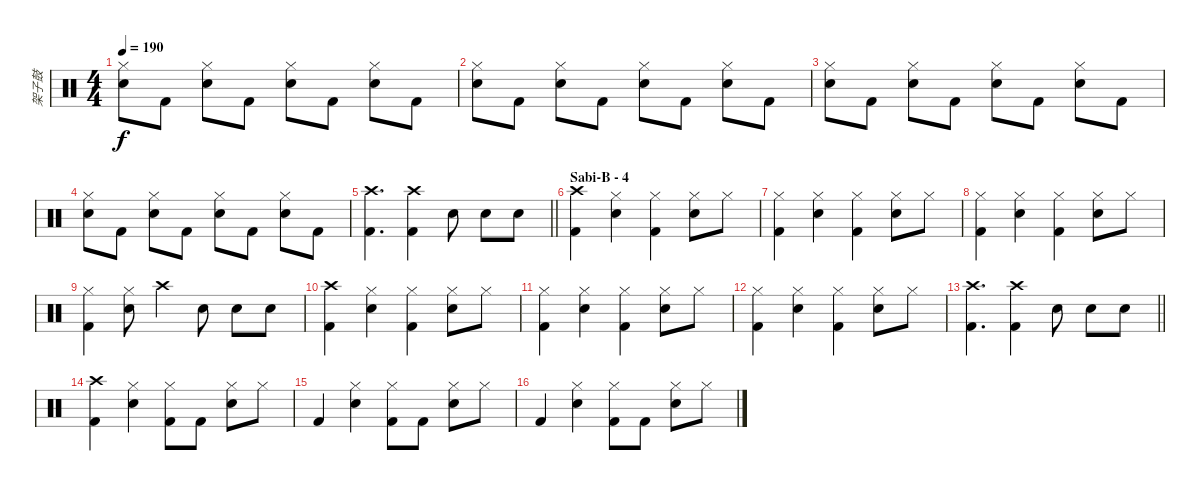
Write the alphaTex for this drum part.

\track ("架子鼓" "架子鼓") {instrument percussion}
\staff {score}
\articulation defaults
\ts (4 4)
\tempo 190
\clef neutral
\ks c
("Hi-Hat (closed)" "Electric Snare (hit)").8{dy f} "Kick (hit) 2".8 ("Hi-Hat (closed)" "Electric Snare (hit)").8 "Kick (hit) 2".8 ("Hi-Hat (closed)" "Electric Snare (hit)").8 "Kick (hit) 2".8 ("Hi-Hat (closed)" "Electric Snare (hit)").8 "Kick (hit) 2".8 |
("Hi-Hat (closed)" "Electric Snare (hit)").8 "Kick (hit) 2".8 ("Hi-Hat (closed)" "Electric Snare (hit)").8 "Kick (hit) 2".8 ("Hi-Hat (closed)" "Electric Snare (hit)").8 "Kick (hit) 2".8 ("Hi-Hat (closed)" "Electric Snare (hit)").8 "Kick (hit) 2".8 |
("Hi-Hat (closed)" "Electric Snare (hit)").8 "Kick (hit) 2".8 ("Hi-Hat (closed)" "Electric Snare (hit)").8 "Kick (hit) 2".8 ("Hi-Hat (closed)" "Electric Snare (hit)").8 "Kick (hit) 2".8 ("Hi-Hat (closed)" "Electric Snare (hit)").8 "Kick (hit) 2".8 |
("Hi-Hat (closed)" "Electric Snare (hit)").8 "Kick (hit) 2".8 ("Hi-Hat (closed)" "Electric Snare (hit)").8 "Kick (hit) 2".8 ("Hi-Hat (closed)" "Electric Snare (hit)").8 "Kick (hit) 2".8 ("Hi-Hat (closed)" "Electric Snare (hit)").8 "Kick (hit) 2".8 |
\barLineRight lightlight
("Crash high (hit)" "Kick (hit) 2").4{d} ("Crash high (hit)" "Kick (hit) 2").4 "Electric Snare (hit)".8 "Electric Snare (hit)".8 "Electric Snare (hit)".8 |
\section ("" "Sabi-B - 4")
("Crash high (hit)" "Kick (hit) 2").4 ("Hi-Hat (closed)" "Electric Snare (hit)").4 ("Hi-Hat (closed)" "Kick (hit) 2").4 ("Hi-Hat (closed)" "Electric Snare (hit)").8 "Hi-Hat (closed)".8 |
("Hi-Hat (closed)" "Kick (hit) 2").4 ("Hi-Hat (closed)" "Electric Snare (hit)").4 ("Hi-Hat (closed)" "Kick (hit) 2").4 ("Hi-Hat (closed)" "Electric Snare (hit)").8 "Hi-Hat (closed)".8 |
("Hi-Hat (closed)" "Kick (hit) 2").4 ("Hi-Hat (closed)" "Electric Snare (hit)").4 ("Hi-Hat (closed)" "Kick (hit) 2").4 ("Hi-Hat (closed)" "Electric Snare (hit)").8 "Hi-Hat (closed)".8 |
("Hi-Hat (closed)" "Kick (hit) 2").4 ("Hi-Hat (closed)" "Electric Snare (hit)").8 "Crash high (hit)".4 "Electric Snare (hit)".8 "Electric Snare (hit)".8 "Electric Snare (hit)".8 |
("Crash high (hit)" "Kick (hit) 2").4 ("Hi-Hat (closed)" "Electric Snare (hit)").4 ("Hi-Hat (closed)" "Kick (hit) 2").4 ("Hi-Hat (closed)" "Electric Snare (hit)").8 "Hi-Hat (closed)".8 |
("Hi-Hat (closed)" "Kick (hit) 2").4 ("Hi-Hat (closed)" "Electric Snare (hit)").4 ("Hi-Hat (closed)" "Kick (hit) 2").4 ("Hi-Hat (closed)" "Electric Snare (hit)").8 "Hi-Hat (closed)".8 |
("Hi-Hat (closed)" "Kick (hit) 2").4 ("Hi-Hat (closed)" "Electric Snare (hit)").4 ("Hi-Hat (closed)" "Kick (hit) 2").4 ("Hi-Hat (closed)" "Electric Snare (hit)").8 "Hi-Hat (closed)".8 |
\barLineRight lightlight
("Crash high (hit)" "Kick (hit) 2").4{d} ("Crash high (hit)" "Kick (hit) 2").4 "Electric Snare (hit)".8 "Electric Snare (hit)".8 "Electric Snare (hit)".8 |
("Crash high (hit)" "Kick (hit) 2").4 ("Hi-Hat (closed)" "Electric Snare (hit)").4 ("Hi-Hat (closed)" "Kick (hit) 2").8 "Kick (hit) 2".8 ("Hi-Hat (closed)" "Electric Snare (hit)").8 "Hi-Hat (closed)".8 |
"Kick (hit) 2".4 ("Hi-Hat (closed)" "Electric Snare (hit)").4 ("Hi-Hat (closed)" "Kick (hit) 2").8 "Kick (hit) 2".8 ("Hi-Hat (closed)" "Electric Snare (hit)").8 "Hi-Hat (closed)".8 |
"Kick (hit) 2".4 ("Hi-Hat (closed)" "Electric Snare (hit)").4 ("Hi-Hat (closed)" "Kick (hit) 2").8 "Kick (hit) 2".8 ("Hi-Hat (closed)" "Electric Snare (hit)").8 "Hi-Hat (closed)".8
